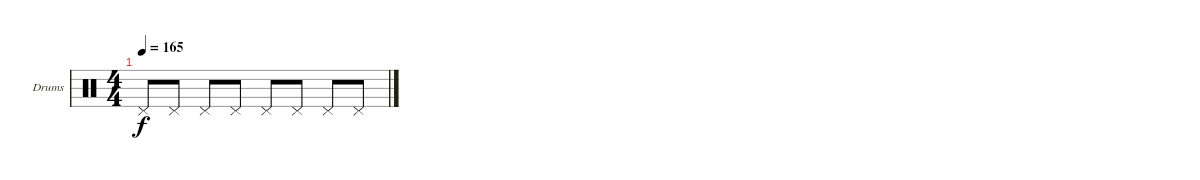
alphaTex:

\bracketExtendMode groupsimilarinstruments
\firstSystemTrackNameOrientation horizontal
\otherSystemsTrackNameOrientation horizontal
\track ("Drumkit" "Drums") {instrument percussion}
\staff {score}
\articulation defaults
\ts (4 4)
\tempo 165
\clef neutral
\ks c "Pedal Hi-Hat (hit)".8{dy f} "Pedal Hi-Hat (hit)".8 "Pedal Hi-Hat (hit)".8 "Pedal Hi-Hat (hit)".8 "Pedal Hi-Hat (hit)".8 "Pedal Hi-Hat (hit)".8 "Pedal Hi-Hat (hit)".8 "Pedal Hi-Hat (hit)".8
